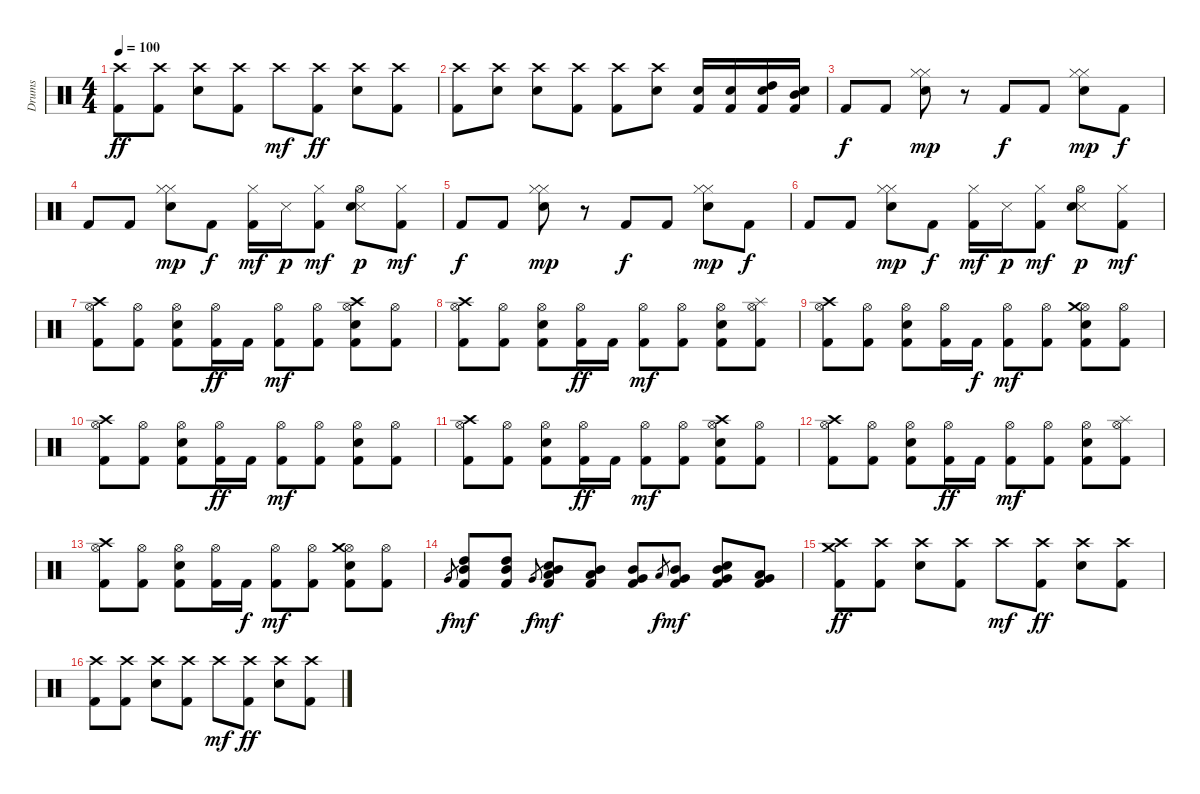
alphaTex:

\track ("Drums" "Drums") {instrument percussion}
\staff {score}
\articulation defaults
\ts (4 4)
\tempo 100
\clef neutral
\ks c
("Crash high (hit)" "Kick (hit) 2").8{dy ff} ("Crash high (hit)" "Kick (hit) 2").8 ("Crash high (hit)" "Electric Snare (hit)").8 ("Crash high (hit)" "Kick (hit) 2").8 "Crash high (hit)".8{dy mf} ("Crash high (hit)" "Kick (hit) 2").8{dy ff} ("Crash high (hit)" "Electric Snare (hit)").8 ("Crash high (hit)" "Kick (hit) 2").8 |
("Crash high (hit)" "Kick (hit) 2").8 ("Crash high (hit)" "Electric Snare (hit)").8 ("Crash high (hit)" "Electric Snare (hit)").8 ("Crash high (hit)" "Kick (hit) 2").8 ("Crash high (hit)" "Kick (hit) 2").8 ("Crash high (hit)" "Electric Snare (hit)").8 ("Electric Snare (hit)" "Kick (hit) 2").16 ("Electric Snare (hit)" "Kick (hit) 2").16 ("High Tom (hit)" "Electric Snare (hit)" "Kick (hit) 2").16 ("Mid Tom (hit)" "Electric Snare (hit)" "Kick (hit) 2").16 |
"Kick (hit) 2".8{dy f} "Kick (hit) 2".8 ("Hi-Hat (closed)" "Hi-Hat (closed)" "Electric Snare (hit)").8{dy mp} r.8 "Kick (hit) 2".8{dy f} "Kick (hit) 2".8 ("Hi-Hat (closed)" "Hi-Hat (closed)" "Electric Snare (hit)").8{dy mp} "Kick (hit) 2".8{dy f} |
"Kick (hit) 2".8 "Kick (hit) 2".8 ("Hi-Hat (closed)" "Hi-Hat (closed)" "Electric Snare (hit)").8{dy mp} "Kick (hit) 2".8{dy f} ("Hi-Hat (closed)" "Kick (hit) 2").16{dy mf} "Snare (side stick) 3".16{dy p} ("Hi-Hat (closed)" "Kick (hit) 2").8{dy mf} ("Hi-Hat (open)" "Snare (side stick) 3" "Electric Snare (hit)").8{dy p} ("Hi-Hat (closed)" "Kick (hit) 2").8{dy mf} |
"Kick (hit) 2".8{dy f} "Kick (hit) 2".8 ("Hi-Hat (closed)" "Hi-Hat (closed)" "Electric Snare (hit)").8{dy mp} r.8 "Kick (hit) 2".8{dy f} "Kick (hit) 2".8 ("Hi-Hat (closed)" "Hi-Hat (closed)" "Electric Snare (hit)").8{dy mp} "Kick (hit) 2".8{dy f} |
"Kick (hit) 2".8 "Kick (hit) 2".8 ("Hi-Hat (closed)" "Hi-Hat (closed)" "Electric Snare (hit)").8{dy mp} "Kick (hit) 2".8{dy f} ("Hi-Hat (closed)" "Kick (hit) 2").16{dy mf} "Snare (side stick) 3".16{dy p} ("Hi-Hat (closed)" "Kick (hit) 2").8{dy mf} ("Hi-Hat (open)" "Snare (side stick) 3" "Electric Snare (hit)").8{dy p} ("Hi-Hat (closed)" "Kick (hit) 2").8{dy mf} |
("Hi-Hat (open)" "Crash high (hit)" "Kick (hit) 2").8 ("Hi-Hat (open)" "Kick (hit) 2").8 ("Hi-Hat (open)" "Electric Snare (hit)" "Kick (hit) 2").8 ("Hi-Hat (open)" "Kick (hit) 2").16{dy ff} "Kick (hit) 2".16 ("Hi-Hat (open)" "Kick (hit) 2").8{dy mf} ("Hi-Hat (open)" "Kick (hit) 2").8 ("Hi-Hat (open)" "Crash high (hit)" "Electric Snare (hit)" "Kick (hit) 2").8 ("Hi-Hat (open)" "Kick (hit) 2").8 |
("Hi-Hat (open)" "Crash high (hit)" "Kick (hit) 2").8 ("Hi-Hat (open)" "Kick (hit) 2").8 ("Hi-Hat (open)" "Electric Snare (hit)" "Kick (hit) 2").8 ("Hi-Hat (open)" "Kick (hit) 2").16{dy ff} "Kick (hit) 2".16 ("Hi-Hat (open)" "Kick (hit) 2").8{dy mf} ("Hi-Hat (open)" "Kick (hit) 2").8 ("Hi-Hat (open)" "Electric Snare (hit)" "Kick (hit) 2").8 ("Hi-Hat (open)" "Splash (hit)" "Kick (hit) 2").8 |
("Hi-Hat (open)" "Crash high (hit)" "Kick (hit) 2").8 ("Hi-Hat (open)" "Kick (hit) 2").8 ("Hi-Hat (open)" "Electric Snare (hit)" "Kick (hit) 2").8 ("Hi-Hat (open)" "Kick (hit) 2").16 "Kick (hit) 2".16{dy f} ("Hi-Hat (open)" "Kick (hit) 2").8{dy mf} ("Hi-Hat (open)" "Kick (hit) 2").8 ("Hi-Hat (open)" "Crash medium (hit)" "Electric Snare (hit)" "Kick (hit) 2").8 ("Hi-Hat (open)" "Kick (hit) 2").8 |
("Hi-Hat (open)" "Crash high (hit)" "Kick (hit) 2").8 ("Hi-Hat (open)" "Kick (hit) 2").8 ("Hi-Hat (open)" "Electric Snare (hit)" "Kick (hit) 2").8 ("Hi-Hat (open)" "Kick (hit) 2").16{dy ff} "Kick (hit) 2".16 ("Hi-Hat (open)" "Kick (hit) 2").8{dy mf} ("Hi-Hat (open)" "Kick (hit) 2").8 ("Hi-Hat (open)" "Electric Snare (hit)" "Kick (hit) 2").8 ("Hi-Hat (open)" "Kick (hit) 2").8 |
("Hi-Hat (open)" "Crash high (hit)" "Kick (hit) 2").8 ("Hi-Hat (open)" "Kick (hit) 2").8 ("Hi-Hat (open)" "Electric Snare (hit)" "Kick (hit) 2").8 ("Hi-Hat (open)" "Kick (hit) 2").16{dy ff} "Kick (hit) 2".16 ("Hi-Hat (open)" "Kick (hit) 2").8{dy mf} ("Hi-Hat (open)" "Kick (hit) 2").8 ("Hi-Hat (open)" "Crash high (hit)" "Electric Snare (hit)" "Kick (hit) 2").8 ("Hi-Hat (open)" "Kick (hit) 2").8 |
("Hi-Hat (open)" "Crash high (hit)" "Kick (hit) 2").8 ("Hi-Hat (open)" "Kick (hit) 2").8 ("Hi-Hat (open)" "Electric Snare (hit)" "Kick (hit) 2").8 ("Hi-Hat (open)" "Kick (hit) 2").16{dy ff} "Kick (hit) 2".16 ("Hi-Hat (open)" "Kick (hit) 2").8{dy mf} ("Hi-Hat (open)" "Kick (hit) 2").8 ("Hi-Hat (open)" "Electric Snare (hit)" "Kick (hit) 2").8 ("Hi-Hat (open)" "Splash (hit)" "Kick (hit) 2").8 |
("Hi-Hat (open)" "Crash high (hit)" "Kick (hit) 2").8 ("Hi-Hat (open)" "Kick (hit) 2").8 ("Hi-Hat (open)" "Electric Snare (hit)" "Kick (hit) 2").8 ("Hi-Hat (open)" "Kick (hit) 2").16 "Kick (hit) 2".16{dy f} ("Hi-Hat (open)" "Kick (hit) 2").8{dy mf} ("Hi-Hat (open)" "Kick (hit) 2").8 ("Hi-Hat (open)" "Crash medium (hit)" "Electric Snare (hit)" "Kick (hit) 2").8 ("Hi-Hat (open)" "Kick (hit) 2").8 |
"Very Low Tom (hit)".8{gr dy f} ("High Tom (hit)" "Mid Tom (hit)" "Kick (hit) 2").8{dy mf} ("High Tom (hit)" "Mid Tom (hit)" "Kick (hit) 2").8 "Very Low Tom (hit)".8{gr dy f} ("Low Tom (hit)" "Mid Tom (hit)" "Electric Snare (hit)" "Kick (hit) 2").8{dy mf} ("Low Tom (hit)" "Mid Tom (hit)" "Kick (hit) 2").8 ("Mid Tom (hit)" "Very Low Tom (hit)" "Kick (hit) 2").8 "Low Tom (hit)".8{gr dy f} ("Very Low Tom (hit)" "Mid Tom (hit)" "Kick (hit) 2").8{dy mf} ("Mid Tom (hit)" "Very Low Tom (hit)" "Electric Snare (hit)" "Kick (hit) 2").8 ("Very Low Tom (hit)" "Low Floor Tom (hit)" "Kick (hit) 2").8 |
("Crash high (hit)" "Crash medium (hit)" "Kick (hit) 2").8{dy ff} ("Crash high (hit)" "Kick (hit) 2").8 ("Crash high (hit)" "Electric Snare (hit)").8 ("Crash high (hit)" "Kick (hit) 2").8 "Crash high (hit)".8{dy mf} ("Crash high (hit)" "Kick (hit) 2").8{dy ff} ("Crash high (hit)" "Electric Snare (hit)").8 ("Crash high (hit)" "Kick (hit) 2").8 |
("Crash high (hit)" "Kick (hit) 2").8 ("Crash high (hit)" "Kick (hit) 2").8 ("Crash high (hit)" "Electric Snare (hit)").8 ("Crash high (hit)" "Kick (hit) 2").8 "Crash high (hit)".8{dy mf} ("Crash high (hit)" "Kick (hit) 2").8{dy ff} ("Crash high (hit)" "Electric Snare (hit)").8 ("Crash high (hit)" "Kick (hit) 2").8
